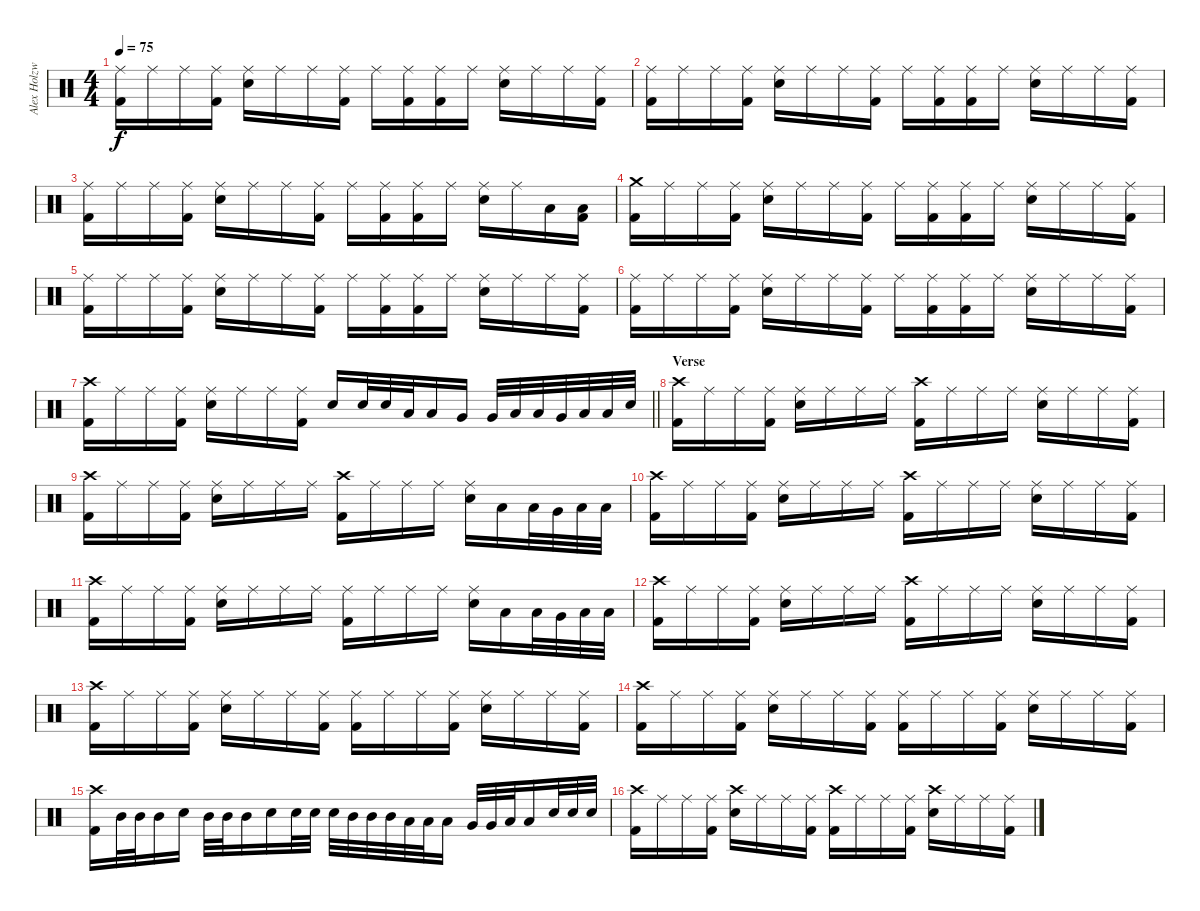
\track ("Alex Holzwarth (Drums)" "Alex Holzw") {instrument percussion}
\staff {score}
\articulation defaults
\ts (4 4)
\tempo 75
\clef neutral
\ks c
("Ride (middle)" "Kick (hit) 2").16{dy f} "Ride (middle)".16 "Ride (middle)".16 ("Ride (middle)" "Kick (hit) 2").16 ("Ride (middle)" "Snare (hit) 2").16 "Ride (middle)".16 "Ride (middle)".16 ("Ride (middle)" "Kick (hit) 2").16 "Ride (middle)".16 ("Ride (middle)" "Kick (hit) 2").16 ("Ride (middle)" "Kick (hit) 2").16 "Ride (middle)".16 ("Ride (middle)" "Snare (hit) 2").16 "Ride (middle)".16 "Ride (middle)".16 ("Ride (middle)" "Kick (hit) 2").16 |
("Ride (middle)" "Kick (hit) 2").16 "Ride (middle)".16 "Ride (middle)".16 ("Ride (middle)" "Kick (hit) 2").16 ("Ride (middle)" "Snare (hit) 2").16 "Ride (middle)".16 "Ride (middle)".16 ("Ride (middle)" "Kick (hit) 2").16 "Ride (middle)".16 ("Ride (middle)" "Kick (hit) 2").16 ("Ride (middle)" "Kick (hit) 2").16 "Ride (middle)".16 ("Ride (middle)" "Snare (hit) 2").16 "Ride (middle)".16 "Ride (middle)".16 ("Ride (middle)" "Kick (hit) 2").16 |
("Ride (middle)" "Kick (hit) 2").16 "Ride (middle)".16 "Ride (middle)".16 ("Ride (middle)" "Kick (hit) 2").16 ("Ride (middle)" "Snare (hit) 2").16 "Ride (middle)".16 "Ride (middle)".16 ("Ride (middle)" "Kick (hit) 2").16 "Ride (middle)".16 ("Ride (middle)" "Kick (hit) 2").16 ("Ride (middle)" "Kick (hit) 2").16 "Ride (middle)".16 ("Ride (middle)" "Snare (hit) 2").16 "Ride (middle)".16 "Low Floor Tom (hit)".16 ("Low Floor Tom (hit)" "Kick (hit) 2").16 |
("Crash medium (hit)" "Kick (hit) 2").16 "Ride (middle)".16 "Ride (middle)".16 ("Ride (middle)" "Kick (hit) 2").16 ("Ride (middle)" "Snare (hit) 2").16 "Ride (middle)".16 "Ride (middle)".16 ("Ride (middle)" "Kick (hit) 2").16 "Ride (middle)".16 ("Ride (middle)" "Kick (hit) 2").16 ("Ride (middle)" "Kick (hit) 2").16 "Ride (middle)".16 ("Ride (middle)" "Snare (hit) 2").16 "Ride (middle)".16 "Ride (middle)".16 ("Ride (middle)" "Kick (hit) 2").16 |
("Ride (middle)" "Kick (hit) 2").16 "Ride (middle)".16 "Ride (middle)".16 ("Ride (middle)" "Kick (hit) 2").16 ("Ride (middle)" "Snare (hit) 2").16 "Ride (middle)".16 "Ride (middle)".16 ("Ride (middle)" "Kick (hit) 2").16 "Ride (middle)".16 ("Ride (middle)" "Kick (hit) 2").16 ("Ride (middle)" "Kick (hit) 2").16 "Ride (middle)".16 ("Ride (middle)" "Snare (hit) 2").16 "Ride (middle)".16 "Ride (middle)".16 ("Ride (middle)" "Kick (hit) 2").16 |
("Ride (middle)" "Kick (hit) 2").16 "Ride (middle)".16 "Ride (middle)".16 ("Ride (middle)" "Kick (hit) 2").16 ("Ride (middle)" "Snare (hit) 2").16 "Ride (middle)".16 "Ride (middle)".16 ("Ride (middle)" "Kick (hit) 2").16 "Ride (middle)".16 ("Ride (middle)" "Kick (hit) 2").16 ("Ride (middle)" "Kick (hit) 2").16 "Ride (middle)".16 ("Ride (middle)" "Snare (hit) 2").16 "Ride (middle)".16 "Ride (middle)".16 ("Ride (middle)" "Kick (hit) 2").16 |
\barLineRight lightlight
("Crash high (hit)" "Kick (hit) 2").16 "Ride (middle)".16 "Ride (middle)".16 ("Ride (middle)" "Kick (hit) 2").16 ("Ride (middle)" "Snare (hit) 2").16 "Ride (middle)".16 "Ride (middle)".16 ("Ride (middle)" "Kick (hit) 2").16 "Electric Snare (hit)".16 "Electric Snare (hit)".32 "Electric Snare (hit)".32 "Low Tom (hit)".32 "Low Tom (hit)".16 "Very Low Tom (hit)".16 "Very Low Tom (hit)".32 "Low Tom (hit)".32 "Low Tom (hit)".32 "Very Low Tom (hit)".32 "Low Floor Tom (hit)".32 "Low Floor Tom (hit)".32 "Electric Snare (hit)".32 |
\section ("" "Verse")
("Crash high (hit)" "Kick (hit) 2").16 "Ride (middle)".16 "Ride (middle)".16 ("Ride (middle)" "Kick (hit) 2").16 ("Ride (middle)" "Electric Snare (hit)").16 "Ride (middle)".16 "Ride (middle)".16 "Ride (middle)".16 ("Crash high (hit)" "Kick (hit) 2").16 "Ride (middle)".16 "Ride (middle)".16 "Ride (middle)".16 ("Ride (middle)" "Electric Snare (hit)").16 "Ride (middle)".16 "Ride (middle)".16 ("Ride (middle)" "Kick (hit) 2").16 |
("Crash high (hit)" "Kick (hit) 2").16 "Ride (middle)".16 "Ride (middle)".16 ("Ride (middle)" "Kick (hit) 2").16 ("Ride (middle)" "Electric Snare (hit)").16 "Ride (middle)".16 "Ride (middle)".16 "Ride (middle)".16 ("Crash high (hit)" "Kick (hit) 2").16 "Ride (middle)".16 "Ride (middle)".16 "Ride (middle)".16 ("Ride (middle)" "Electric Snare (hit)").16 "Low Tom (hit)".16 "Low Tom (hit)".32 "Very Low Tom (hit)".32 "Low Floor Tom (hit)".32 "Low Floor Tom (hit)".32 |
("Crash high (hit)" "Kick (hit) 2").16 "Ride (middle)".16 "Ride (middle)".16 ("Ride (middle)" "Kick (hit) 2").16 ("Ride (middle)" "Electric Snare (hit)").16 "Ride (middle)".16 "Ride (middle)".16 "Ride (middle)".16 ("Crash high (hit)" "Kick (hit) 2").16 "Ride (middle)".16 "Ride (middle)".16 "Ride (middle)".16 ("Ride (middle)" "Electric Snare (hit)").16 "Ride (middle)".16 "Ride (middle)".16 ("Ride (middle)" "Kick (hit) 2").16 |
("Crash high (hit)" "Kick (hit) 2").16 "Ride (middle)".16 "Ride (middle)".16 ("Ride (middle)" "Kick (hit) 2").16 ("Ride (middle)" "Electric Snare (hit)").16 "Ride (middle)".16 "Ride (middle)".16 "Ride (middle)".16 ("Ride (middle)" "Kick (hit) 2").16 "Ride (middle)".16 "Ride (middle)".16 "Ride (middle)".16 ("Ride (middle)" "Electric Snare (hit)").16 "Low Tom (hit)".16 "Low Tom (hit)".32 "Very Low Tom (hit)".32 "Low Floor Tom (hit)".32 "Low Floor Tom (hit)".32 |
("Crash high (hit)" "Kick (hit) 2").16 "Ride (middle)".16 "Ride (middle)".16 ("Ride (middle)" "Kick (hit) 2").16 ("Ride (middle)" "Electric Snare (hit)").16 "Ride (middle)".16 "Ride (middle)".16 "Ride (middle)".16 ("Crash high (hit)" "Kick (hit) 2").16 "Ride (middle)".16 "Ride (middle)".16 "Ride (middle)".16 ("Ride (middle)" "Electric Snare (hit)").16 "Ride (middle)".16 "Ride (middle)".16 ("Ride (middle)" "Kick (hit) 2").16 |
("Crash high (hit)" "Kick (hit) 2").16 "Ride (middle)".16 "Ride (middle)".16 ("Ride (middle)" "Kick (hit) 2").16 ("Ride (middle)" "Electric Snare (hit)").16 "Ride (middle)".16 "Ride (middle)".16 ("Ride (middle)" "Kick (hit) 2").16 ("Ride (middle)" "Kick (hit) 2").16 "Ride (middle)".16 "Ride (middle)".16 ("Ride (middle)" "Kick (hit) 2").16 ("Ride (middle)" "Electric Snare (hit)").16 "Ride (middle)".16 "Ride (middle)".16 ("Ride (middle)" "Kick (hit) 2").16 |
("Crash high (hit)" "Kick (hit) 2").16 "Ride (middle)".16 "Ride (middle)".16 ("Ride (middle)" "Kick (hit) 2").16 ("Ride (middle)" "Electric Snare (hit)").16 "Ride (middle)".16 "Ride (middle)".16 ("Ride (middle)" "Kick (hit) 2").16 ("Ride (middle)" "Kick (hit) 2").16 "Ride (middle)".16 "Ride (middle)".16 ("Ride (middle)" "Kick (hit) 2").16 ("Ride (middle)" "Electric Snare (hit)").16 "Ride (middle)".16 "Ride (middle)".16 ("Ride (middle)" "Kick (hit) 2").16 |
("Crash high (hit)" "Kick (hit) 2").16 "Mid Tom (hit)".32 "Mid Tom (hit)".32 "Mid Tom (hit)".16 "Electric Snare (hit)".16 "Mid Tom (hit)".32 "Mid Tom (hit)".32 "Mid Tom (hit)".16 "Electric Snare (hit)".16 "Electric Snare (hit)".32 "Electric Snare (hit)".32 "Electric Snare (hit)".32 "Mid Tom (hit)".32 "Mid Tom (hit)".32 "Mid Tom (hit)".32 "Low Tom (hit)".32 "Low Tom (hit)".32 "Low Tom (hit)".16 "Very Low Tom (hit)".32 "Very Low Tom (hit)".32 "Low Floor Tom (hit)".32 "Low Floor Tom (hit)".16 "Electric Snare (hit)".32 "Electric Snare (hit)".32 "Electric Snare (hit)".32 |
("Crash high (hit)" "Kick (hit) 2").16 "Ride (middle)".16 "Ride (middle)".16 ("Ride (middle)" "Kick (hit) 2").16 ("Crash high (hit)" "Electric Snare (hit)").16 "Ride (middle)".16 "Ride (middle)".16 ("Ride (middle)" "Kick (hit) 2").16 ("Crash high (hit)" "Kick (hit) 2").16 "Ride (middle)".16 "Ride (middle)".16 ("Ride (middle)" "Kick (hit) 2").16 ("Crash high (hit)" "Electric Snare (hit)").16 "Ride (middle)".16 "Ride (middle)".16 ("Ride (middle)" "Kick (hit) 2").16
